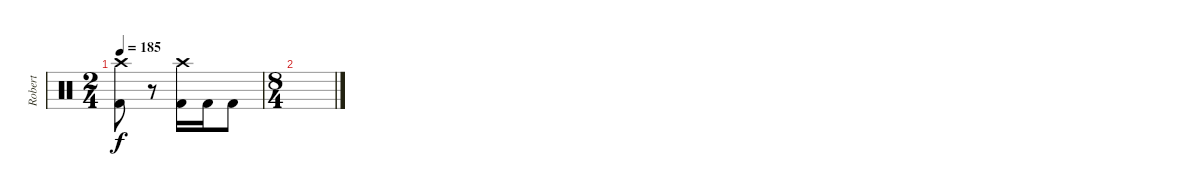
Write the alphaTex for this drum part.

\track ("Robert" "Robert") {instrument percussion}
\staff {score}
\articulation defaults
\ts (2 4)
\tempo 185
\clef neutral
\ks c
("Kick (hit) 2" "Crash high (hit)").8{dy f} r.8 ("Kick (hit) 2" "Crash high (hit)").16 "Kick (hit) 2".16 "Kick (hit) 2".8 |
\ts (8 4)
